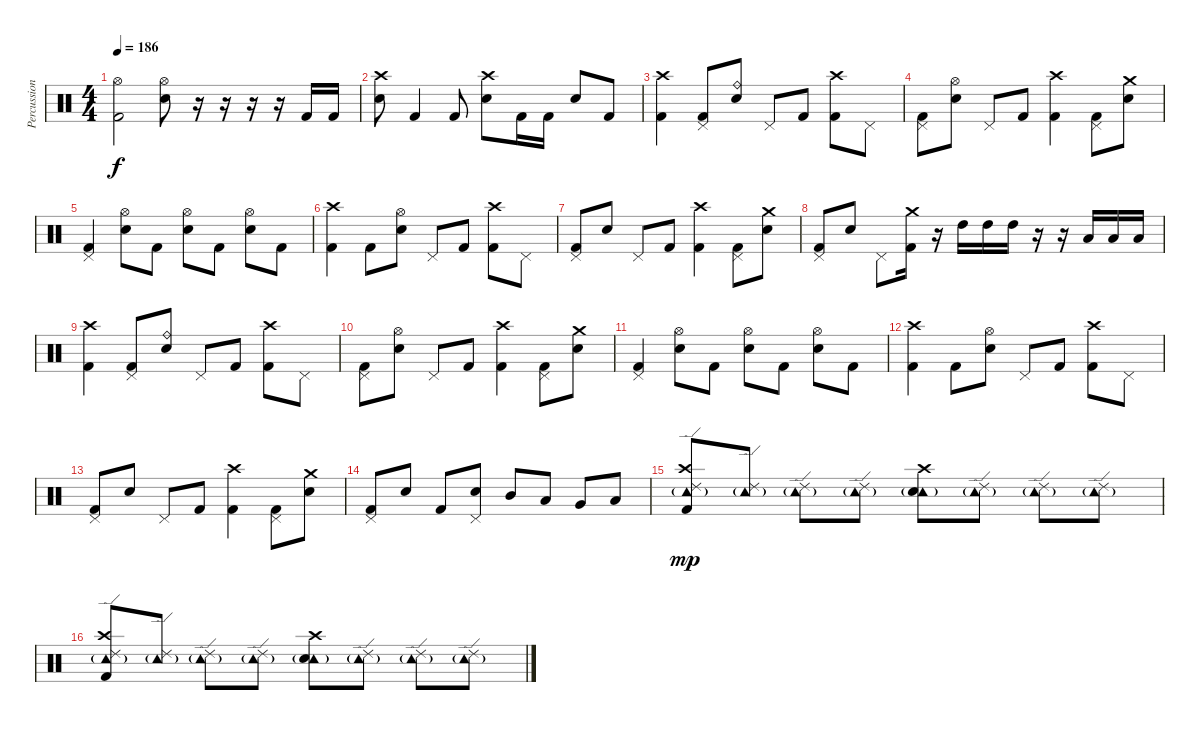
\track ("Percussion" "Percussion") {instrument percussion}
\staff {score}
\articulation defaults
\ts (4 4)
\tempo 186
\clef neutral
\ks c
("Hi-Hat (open)" "Kick (hit) 2").2{dy f} ("Hi-Hat (open)" "Electric Snare (hit)").8 r.16 r.16 r.16 r.16 "Kick (hit) 2".16 "Kick (hit) 2".16 |
("Crash high (hit)" "Electric Snare (hit)").8 "Kick (hit) 2".4 "Kick (hit) 2".8 ("Crash high (hit)" "Electric Snare (hit)").8 "Kick (hit) 2".16 "Kick (hit) 2".16 "Electric Snare (hit)".8 "Kick (hit) 2".8 |
("Crash high (hit)" "Kick (hit) 2").4 ("Pedal Hi-Hat (hit)" "Kick (hit) 2").8 ("Ride (bell)" "Electric Snare (hit)").8 "Pedal Hi-Hat (hit)".8 "Kick (hit) 2".8 ("Crash high (hit)" "Kick (hit) 2").8 "Pedal Hi-Hat (hit)".8 |
("Pedal Hi-Hat (hit)" "Kick (hit) 2").8 ("Hi-Hat (open)" "Electric Snare (hit)").8 "Pedal Hi-Hat (hit)".8 "Kick (hit) 2".8 ("Crash high (hit)" "Kick (hit) 2").4 ("Pedal Hi-Hat (hit)" "Kick (hit) 2").8 ("Crash medium (hit)" "Electric Snare (hit)").8 |
("Pedal Hi-Hat (hit)" "Kick (hit) 2").4 ("Hi-Hat (open)" "Electric Snare (hit)").8 "Kick (hit) 2".8 ("Hi-Hat (open)" "Electric Snare (hit)").8 "Kick (hit) 2".8 ("Hi-Hat (open)" "Electric Snare (hit)").8 "Kick (hit) 2".8 |
("Crash high (hit)" "Kick (hit) 2").4 "Kick (hit) 2".8 ("Hi-Hat (open)" "Electric Snare (hit)").8 "Pedal Hi-Hat (hit)".8 "Kick (hit) 2".8 ("Crash high (hit)" "Kick (hit) 2").8 "Pedal Hi-Hat (hit)".8 |
("Pedal Hi-Hat (hit)" "Kick (hit) 2").8 "Electric Snare (hit)".8 "Pedal Hi-Hat (hit)".8 "Kick (hit) 2".8 ("Crash high (hit)" "Kick (hit) 2").4 ("Pedal Hi-Hat (hit)" "Kick (hit) 2").8 ("Crash medium (hit)" "Electric Snare (hit)").8 |
("Pedal Hi-Hat (hit)" "Kick (hit) 2").8 "Electric Snare (hit)".8 "Pedal Hi-Hat (hit)".8 ("Crash medium (hit)" "Kick (hit) 2").16 r.16 "High Tom (hit)".16 "High Tom (hit)".16 "High Tom (hit)".16 r.16 r.16 "Low Tom (hit)".16 "Low Tom (hit)".16 "Low Tom (hit)".16 |
("Crash high (hit)" "Kick (hit) 2").4 ("Pedal Hi-Hat (hit)" "Kick (hit) 2").8 ("Ride (bell)" "Electric Snare (hit)").8 "Pedal Hi-Hat (hit)".8 "Kick (hit) 2".8 ("Crash high (hit)" "Kick (hit) 2").8 "Pedal Hi-Hat (hit)".8 |
("Pedal Hi-Hat (hit)" "Kick (hit) 2").8 ("Hi-Hat (open)" "Electric Snare (hit)").8 "Pedal Hi-Hat (hit)".8 "Kick (hit) 2".8 ("Crash high (hit)" "Kick (hit) 2").4 ("Pedal Hi-Hat (hit)" "Kick (hit) 2").8 ("Crash medium (hit)" "Electric Snare (hit)").8 |
("Pedal Hi-Hat (hit)" "Kick (hit) 2").4 ("Hi-Hat (open)" "Electric Snare (hit)").8 "Kick (hit) 2".8 ("Hi-Hat (open)" "Electric Snare (hit)").8 "Kick (hit) 2".8 ("Hi-Hat (open)" "Electric Snare (hit)").8 "Kick (hit) 2".8 |
("Crash high (hit)" "Kick (hit) 2").4 "Kick (hit) 2".8 ("Hi-Hat (open)" "Electric Snare (hit)").8 "Pedal Hi-Hat (hit)".8 "Kick (hit) 2".8 ("Crash high (hit)" "Kick (hit) 2").8 "Pedal Hi-Hat (hit)".8 |
("Pedal Hi-Hat (hit)" "Kick (hit) 2").8 "Electric Snare (hit)".8 "Pedal Hi-Hat (hit)".8 "Kick (hit) 2".8 ("Crash high (hit)" "Kick (hit) 2").4 ("Pedal Hi-Hat (hit)" "Kick (hit) 2").8 ("Crash medium (hit)" "Electric Snare (hit)").8 |
("Pedal Hi-Hat (hit)" "Kick (hit) 2").8 "Electric Snare (hit)".8 "Kick (hit) 2".8 ("Pedal Hi-Hat (hit)" "Electric Snare (hit)").8 "Mid Tom (hit)".8 "Low Tom (hit)".8 "Very Low Tom (hit)".8 "Low Floor Tom (hit)".8 |
("Ride (edge) 2" "Tambourine (hit)"{g} "Crash high (hit)" "Kick (hit) 2").8{dy mp} ("Ride (edge) 2" "Tambourine (hit)"{g}).8 ("Ride (edge) 2" "Tambourine (hit)"{g}).8 ("Ride (edge) 2" "Tambourine (hit)"{g}).8 ("Crash high (hit)" "Tambourine (hit)"{g} "Electric Snare (hit)").8 ("Ride (edge) 2" "Tambourine (hit)"{g}).8 ("Ride (edge) 2" "Tambourine (hit)"{g}).8 ("Ride (edge) 2" "Tambourine (hit)"{g}).8 |
("Ride (edge) 2" "Tambourine (hit)"{g} "Crash high (hit)" "Kick (hit) 2").8 ("Ride (edge) 2" "Tambourine (hit)"{g}).8 ("Ride (edge) 2" "Tambourine (hit)"{g}).8 ("Ride (edge) 2" "Tambourine (hit)"{g}).8 ("Crash high (hit)" "Tambourine (hit)"{g} "Electric Snare (hit)").8 ("Ride (edge) 2" "Tambourine (hit)"{g}).8 ("Ride (edge) 2" "Tambourine (hit)"{g}).8 ("Ride (edge) 2" "Tambourine (hit)"{g}).8
